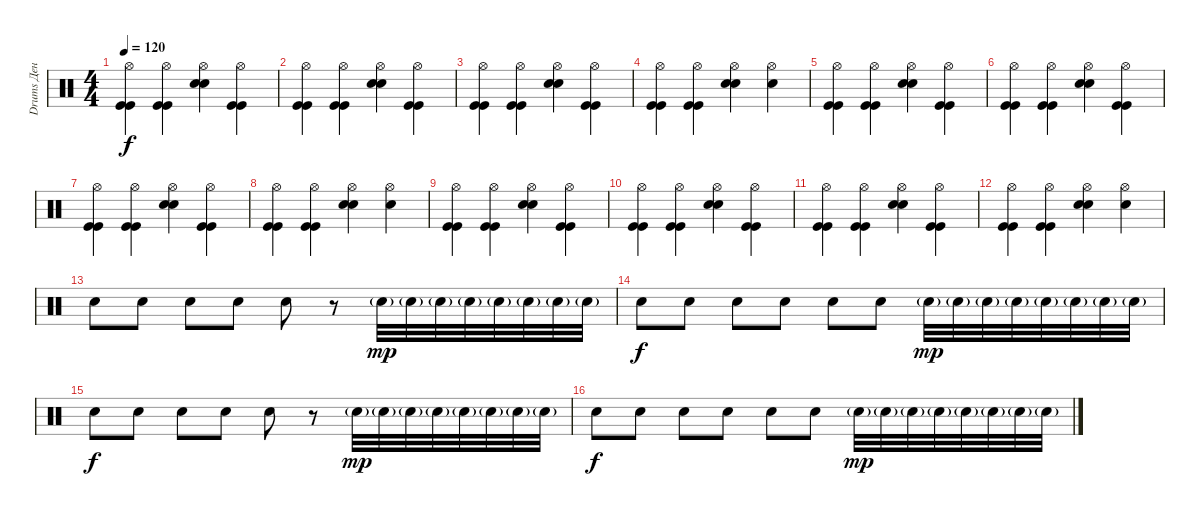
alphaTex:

\track ("Drums Ден" "Drums Ден") {instrument percussion}
\staff {score}
\articulation defaults
\ts (4 4)
\tempo 120
\clef neutral
\ks c
("Hi-Hat (open)" "Kick (hit)" "Kick (hit)").4{dy f} ("Hi-Hat (open)" "Kick (hit)" "Kick (hit)").4 ("Hi-Hat (open)" "Electric Snare (hit)" "Electric Snare (hit)").4 ("Hi-Hat (open)" "Kick (hit)" "Kick (hit)").4 |
("Hi-Hat (open)" "Kick (hit)" "Kick (hit)").4 ("Hi-Hat (open)" "Kick (hit)" "Kick (hit)").4 ("Hi-Hat (open)" "Electric Snare (hit)" "Electric Snare (hit)").4 ("Hi-Hat (open)" "Kick (hit)" "Kick (hit)").4 |
("Hi-Hat (open)" "Kick (hit)" "Kick (hit)").4 ("Hi-Hat (open)" "Kick (hit)" "Kick (hit)").4 ("Hi-Hat (open)" "Electric Snare (hit)" "Electric Snare (hit)").4 ("Hi-Hat (open)" "Kick (hit)" "Kick (hit)").4 |
("Hi-Hat (open)" "Kick (hit)" "Kick (hit)").4 ("Hi-Hat (open)" "Kick (hit)" "Kick (hit)").4 ("Hi-Hat (open)" "Electric Snare (hit)" "Electric Snare (hit)").4 ("Hi-Hat (open)" "Electric Snare (hit)").4 |
("Hi-Hat (open)" "Kick (hit)" "Kick (hit)").4 ("Hi-Hat (open)" "Kick (hit)" "Kick (hit)").4 ("Hi-Hat (open)" "Electric Snare (hit)" "Electric Snare (hit)").4 ("Hi-Hat (open)" "Kick (hit)" "Kick (hit)").4 |
("Hi-Hat (open)" "Kick (hit)" "Kick (hit)").4 ("Hi-Hat (open)" "Kick (hit)" "Kick (hit)").4 ("Hi-Hat (open)" "Electric Snare (hit)" "Electric Snare (hit)").4 ("Hi-Hat (open)" "Kick (hit)" "Kick (hit)").4 |
("Hi-Hat (open)" "Kick (hit)" "Kick (hit)").4 ("Hi-Hat (open)" "Kick (hit)" "Kick (hit)").4 ("Hi-Hat (open)" "Electric Snare (hit)" "Electric Snare (hit)").4 ("Hi-Hat (open)" "Kick (hit)" "Kick (hit)").4 |
("Hi-Hat (open)" "Kick (hit)" "Kick (hit)").4 ("Hi-Hat (open)" "Kick (hit)" "Kick (hit)").4 ("Hi-Hat (open)" "Electric Snare (hit)" "Electric Snare (hit)").4 ("Hi-Hat (open)" "Electric Snare (hit)").4 |
("Hi-Hat (open)" "Kick (hit)" "Kick (hit)").4 ("Hi-Hat (open)" "Kick (hit)" "Kick (hit)").4 ("Hi-Hat (open)" "Electric Snare (hit)" "Electric Snare (hit)").4 ("Hi-Hat (open)" "Kick (hit)" "Kick (hit)").4 |
("Hi-Hat (open)" "Kick (hit)" "Kick (hit)").4 ("Hi-Hat (open)" "Kick (hit)" "Kick (hit)").4 ("Hi-Hat (open)" "Electric Snare (hit)" "Electric Snare (hit)").4 ("Hi-Hat (open)" "Kick (hit)" "Kick (hit)").4 |
("Hi-Hat (open)" "Kick (hit)" "Kick (hit)").4 ("Hi-Hat (open)" "Kick (hit)" "Kick (hit)").4 ("Hi-Hat (open)" "Electric Snare (hit)" "Electric Snare (hit)").4 ("Hi-Hat (open)" "Kick (hit)" "Kick (hit)").4 |
("Hi-Hat (open)" "Kick (hit)" "Kick (hit)").4 ("Hi-Hat (open)" "Kick (hit)" "Kick (hit)").4 ("Hi-Hat (open)" "Electric Snare (hit)" "Electric Snare (hit)").4 ("Hi-Hat (open)" "Electric Snare (hit)").4 |
"Electric Snare (hit)".8 "Electric Snare (hit)".8 "Electric Snare (hit)".8 "Electric Snare (hit)".8 "Electric Snare (hit)".8 r.8 "Electric Snare (hit)"{g}.32{dy mp} "Electric Snare (hit)"{g}.32 "Electric Snare (hit)"{g}.32 "Electric Snare (hit)"{g}.32 "Electric Snare (hit)"{g}.32 "Electric Snare (hit)"{g}.32 "Electric Snare (hit)"{g}.32 "Electric Snare (hit)"{g}.32 |
"Electric Snare (hit)".8{dy f} "Electric Snare (hit)".8 "Electric Snare (hit)".8 "Electric Snare (hit)".8 "Electric Snare (hit)".8 "Electric Snare (hit)".8 "Electric Snare (hit)"{g}.32{dy mp} "Electric Snare (hit)"{g}.32 "Electric Snare (hit)"{g}.32 "Electric Snare (hit)"{g}.32 "Electric Snare (hit)"{g}.32 "Electric Snare (hit)"{g}.32 "Electric Snare (hit)"{g}.32 "Electric Snare (hit)"{g}.32 |
"Electric Snare (hit)".8{dy f} "Electric Snare (hit)".8 "Electric Snare (hit)".8 "Electric Snare (hit)".8 "Electric Snare (hit)".8 r.8 "Electric Snare (hit)"{g}.32{dy mp} "Electric Snare (hit)"{g}.32 "Electric Snare (hit)"{g}.32 "Electric Snare (hit)"{g}.32 "Electric Snare (hit)"{g}.32 "Electric Snare (hit)"{g}.32 "Electric Snare (hit)"{g}.32 "Electric Snare (hit)"{g}.32 |
"Electric Snare (hit)".8{dy f} "Electric Snare (hit)".8 "Electric Snare (hit)".8 "Electric Snare (hit)".8 "Electric Snare (hit)".8 "Electric Snare (hit)".8 "Electric Snare (hit)"{g}.32{dy mp} "Electric Snare (hit)"{g}.32 "Electric Snare (hit)"{g}.32 "Electric Snare (hit)"{g}.32 "Electric Snare (hit)"{g}.32 "Electric Snare (hit)"{g}.32 "Electric Snare (hit)"{g}.32 "Electric Snare (hit)"{g}.32
